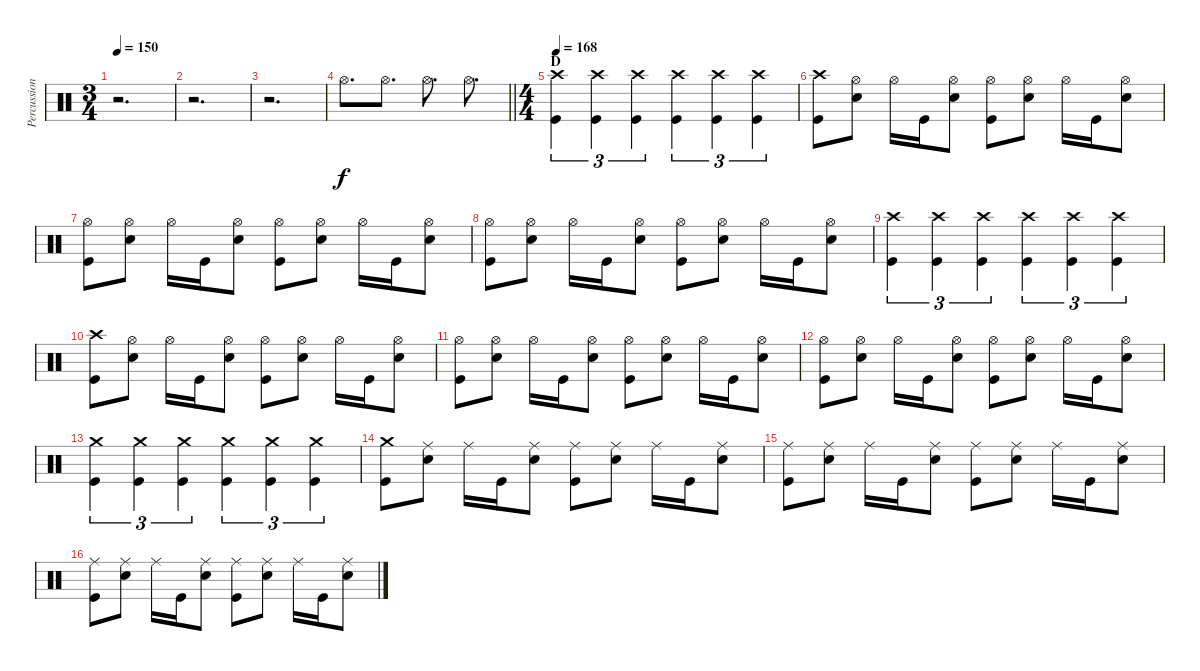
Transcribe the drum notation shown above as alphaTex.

\track ("Percussion" "Percussion") {instrument percussion}
\staff {score}
\articulation defaults
\ts (3 4)
\tempo 150
\clef neutral
\ks c
r.2{d dy f} |
r.2{d} |
r.2{d} |
\barLineRight lightlight "Hi-Hat (open)".8{d} "Hi-Hat (open)".8{d} "Hi-Hat (open)".8{d} "Hi-Hat (open)".8{d}
|
\ts (4 4)
\section ("" "D")
\tempo 168
("Crash high (hit)" "Kick (hit)").4{tu (3 2)} ("Crash high (hit)" "Kick (hit)").4{tu (3 2)} ("Crash high (hit)" "Kick (hit)").4{tu (3 2)} ("Crash high (hit)" "Kick (hit)").4{tu (3 2)} ("Crash high (hit)" "Kick (hit)").4{tu (3 2)} ("Crash high (hit)" "Kick (hit)").4{tu (3 2)} |
("Crash high (hit)" "Kick (hit)").8 ("Hi-Hat (open)" "Snare (hit) 2").8 "Hi-Hat (open)".16 "Kick (hit)".16 ("Hi-Hat (open)" "Snare (hit) 2").8 ("Hi-Hat (open)" "Kick (hit)").8 ("Hi-Hat (open)" "Snare (hit) 2").8 "Hi-Hat (open)".16 "Kick (hit)".16 ("Hi-Hat (open)" "Snare (hit) 2").8 |
("Hi-Hat (open)" "Kick (hit)").8 ("Hi-Hat (open)" "Snare (hit) 2").8 "Hi-Hat (open)".16 "Kick (hit)".16 ("Hi-Hat (open)" "Snare (hit) 2").8 ("Hi-Hat (open)" "Kick (hit)").8 ("Hi-Hat (open)" "Snare (hit) 2").8 "Hi-Hat (open)".16 "Kick (hit)".16 ("Hi-Hat (open)" "Snare (hit) 2").8 |
("Hi-Hat (open)" "Kick (hit)").8 ("Hi-Hat (open)" "Snare (hit) 2").8 "Hi-Hat (open)".16 "Kick (hit)".16 ("Hi-Hat (open)" "Snare (hit) 2").8 ("Hi-Hat (open)" "Kick (hit)").8 ("Hi-Hat (open)" "Snare (hit) 2").8 "Hi-Hat (open)".16 "Kick (hit)".16 ("Hi-Hat (open)" "Snare (hit) 2").8 |
("Crash high (hit)" "Kick (hit)").4{tu (3 2)} ("Crash high (hit)" "Kick (hit)").4{tu (3 2)} ("Crash high (hit)" "Kick (hit)").4{tu (3 2)} ("Crash high (hit)" "Kick (hit)").4{tu (3 2)} ("Crash high (hit)" "Kick (hit)").4{tu (3 2)} ("Crash high (hit)" "Kick (hit)").4{tu (3 2)} |
("Crash high (hit)" "Kick (hit)").8 ("Hi-Hat (open)" "Snare (hit) 2").8 "Hi-Hat (open)".16 "Kick (hit)".16 ("Hi-Hat (open)" "Snare (hit) 2").8 ("Hi-Hat (open)" "Kick (hit)").8 ("Hi-Hat (open)" "Snare (hit) 2").8 "Hi-Hat (open)".16 "Kick (hit)".16 ("Hi-Hat (open)" "Snare (hit) 2").8 |
("Hi-Hat (open)" "Kick (hit)").8 ("Hi-Hat (open)" "Snare (hit) 2").8 "Hi-Hat (open)".16 "Kick (hit)".16 ("Hi-Hat (open)" "Snare (hit) 2").8 ("Hi-Hat (open)" "Kick (hit)").8 ("Hi-Hat (open)" "Snare (hit) 2").8 "Hi-Hat (open)".16 "Kick (hit)".16 ("Hi-Hat (open)" "Snare (hit) 2").8 |
("Hi-Hat (open)" "Kick (hit)").8 ("Hi-Hat (open)" "Snare (hit) 2").8 "Hi-Hat (open)".16 "Kick (hit)".16 ("Hi-Hat (open)" "Snare (hit) 2").8 ("Hi-Hat (open)" "Kick (hit)").8 ("Hi-Hat (open)" "Snare (hit) 2").8 "Hi-Hat (open)".16 "Kick (hit)".16 ("Hi-Hat (open)" "Snare (hit) 2").8 |
("Crash medium (hit)" "Kick (hit)").4{tu (3 2)} ("Crash medium (hit)" "Kick (hit)").4{tu (3 2)} ("Crash medium (hit)" "Kick (hit)").4{tu (3 2)} ("Crash medium (hit)" "Kick (hit)").4{tu (3 2)} ("Crash medium (hit)" "Kick (hit)").4{tu (3 2)} ("Crash medium (hit)" "Kick (hit)").4{tu (3 2)} |
("Crash medium (hit)" "Kick (hit)").8 ("Ride (middle)" "Snare (hit) 2").8 "Ride (middle)".16 "Kick (hit)".16 ("Ride (middle)" "Snare (hit) 2").8 ("Ride (middle)" "Kick (hit)").8 ("Ride (middle)" "Snare (hit) 2").8 "Ride (middle)".16 "Kick (hit)".16 ("Ride (middle)" "Snare (hit) 2").8 |
("Ride (middle)" "Kick (hit)").8 ("Ride (middle)" "Snare (hit) 2").8 "Ride (middle)".16 "Kick (hit)".16 ("Ride (middle)" "Snare (hit) 2").8 ("Ride (middle)" "Kick (hit)").8 ("Ride (middle)" "Snare (hit) 2").8 "Ride (middle)".16 "Kick (hit)".16 ("Ride (middle)" "Snare (hit) 2").8 |
("Ride (middle)" "Kick (hit)").8 ("Ride (middle)" "Snare (hit) 2").8 "Ride (middle)".16 "Kick (hit)".16 ("Ride (middle)" "Snare (hit) 2").8 ("Ride (middle)" "Kick (hit)").8 ("Ride (middle)" "Snare (hit) 2").8 "Ride (middle)".16 "Kick (hit)".16 ("Ride (middle)" "Snare (hit) 2").8
